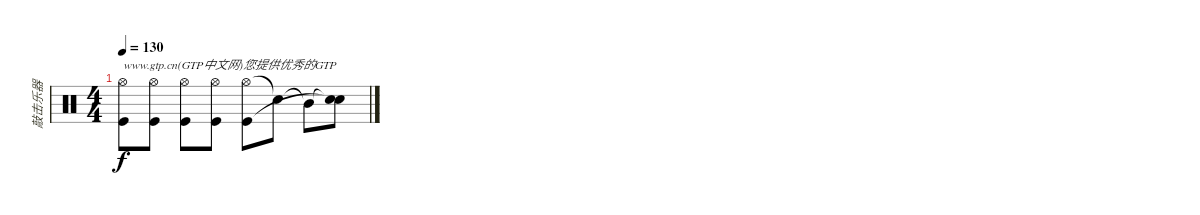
\track ("敲击乐器" "敲击乐器") {instrument percussion}
\staff {score}
\articulation defaults
\ts (4 4)
\tempo 130
\clef neutral
\ks c
("Hi-Hat (open)" "Kick (hit)").8{txt "www.gtp.cn(GTP中文网)您提供优秀的GTP" dy f} ("Hi-Hat (open)" "Kick (hit)").8 ("Hi-Hat (open)" "Kick (hit)").8 ("Hi-Hat (open)" "Kick (hit)").8 ("Hi-Hat (open)" "Kick (hit)").8 "Snare (hit)"{t}.8 "Mid Tom (hit)"{t}.8 ("Snare (hit)"{t} "Snare (hit)"{t}).8
